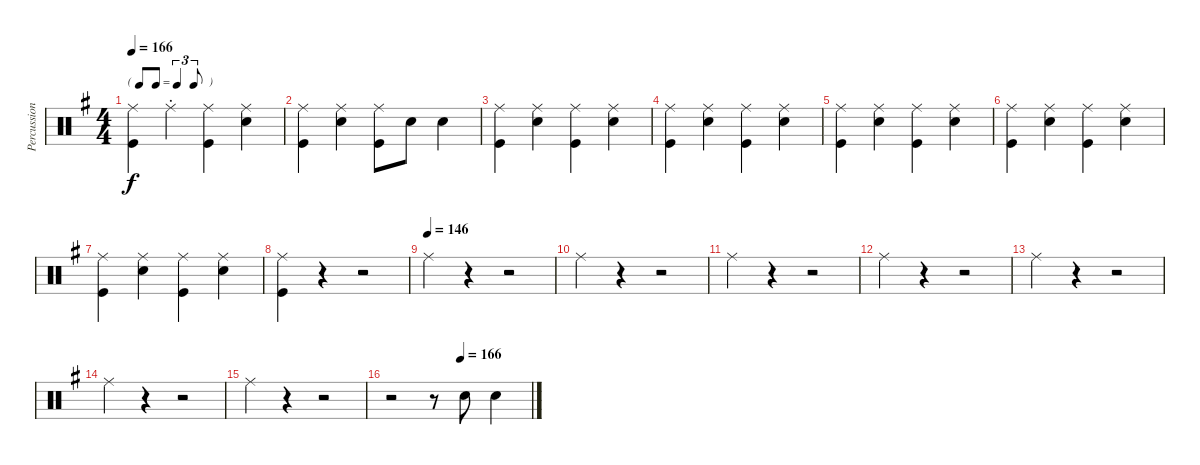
\track ("Percussion" "Percussion") {instrument percussion}
\staff {score}
\articulation defaults
\ts (4 4)
\tf triplet8th
\tempo 166
\clef neutral
\ks g
("Ride (middle)" "Kick (hit)").4{dy f} "Ride (middle)"{st}.4 ("Ride (middle)" "Kick (hit)").4 ("Ride (middle)" "Snare (hit) 2").4 |
("Ride (middle)" "Kick (hit)").4 ("Ride (middle)" "Snare (hit) 2").4 ("Ride (middle)" "Kick (hit)").8 "Snare (hit) 2".8 "Snare (hit) 2".4 |
("Ride (middle)" "Kick (hit)").4 ("Ride (middle)" "Snare (hit) 2").4 ("Ride (middle)" "Kick (hit)").4 ("Ride (middle)" "Snare (hit) 2").4 |
("Ride (middle)" "Kick (hit)").4 ("Ride (middle)" "Snare (hit) 2").4 ("Ride (middle)" "Kick (hit)").4 ("Ride (middle)" "Snare (hit) 2").4 |
("Ride (middle)" "Kick (hit)").4 ("Ride (middle)" "Snare (hit) 2").4 ("Ride (middle)" "Kick (hit)").4 ("Ride (middle)" "Snare (hit) 2").4 |
("Ride (middle)" "Kick (hit)").4 ("Ride (middle)" "Snare (hit) 2").4 ("Ride (middle)" "Kick (hit)").4 ("Ride (middle)" "Snare (hit) 2").4 |
("Ride (middle)" "Kick (hit)").4 ("Ride (middle)" "Snare (hit) 2").4 ("Ride (middle)" "Kick (hit)").4 ("Ride (middle)" "Snare (hit) 2").4 |
("Ride (middle)" "Kick (hit)").4 r.4 r.2 |
\tempo (146)
"Ride (middle)".4 r.4 r.2 |
"Ride (middle)".4 r.4 r.2 |
"Ride (middle)".4 r.4 r.2 |
"Ride (middle)".4 r.4 r.2 |
"Ride (middle)".4 r.4 r.2 |
"Ride (middle)".4 r.4 r.2 |
"Ride (middle)".4 r.4 r.2 |
\tempo (166 0.5)
r.2 r.8 "Snare (hit) 2".8 "Snare (hit) 2".4
